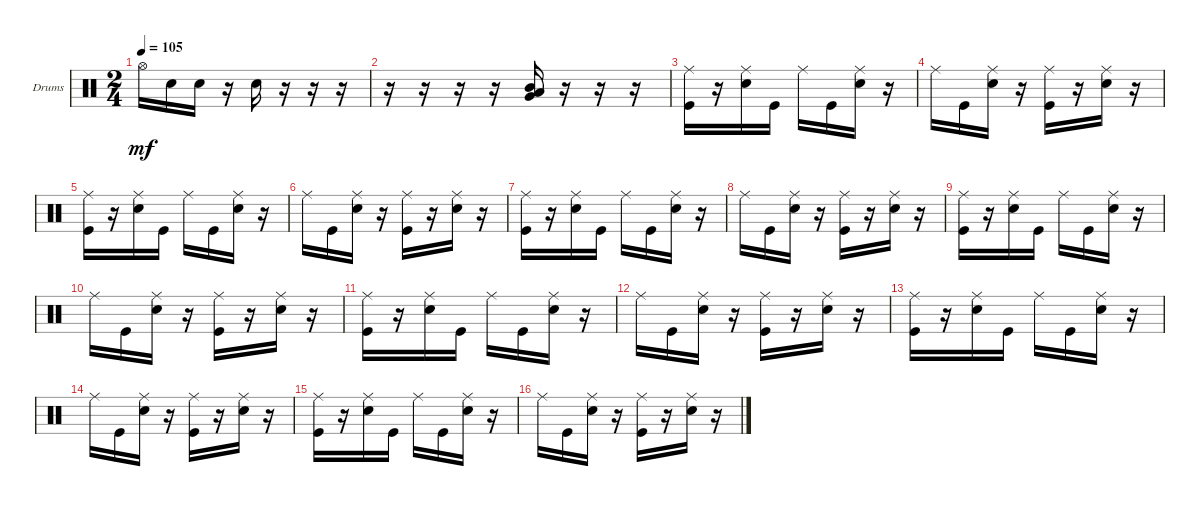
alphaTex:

\defaultSystemsLayout 4
\bracketExtendMode groupsimilarinstruments
\firstSystemTrackNameOrientation horizontal
\otherSystemsTrackNameOrientation horizontal
\track ("Godd" "Drums") {instrument percussion}
\staff {score}
\articulation defaults
\ts (2 4)
\tempo 105
\clef neutral
\ks c "Hi-Hat (open)"{t}.16{dy mf} "Snare (hit) 2".16 "Snare (hit) 2".16
r.16 "Snare (hit) 2".16 r.16 r.16 r.16 |
r.16 r.16 r.16 r.16 ("Very Low Tom (hit)" "Low Tom (hit)" "Mid Tom (hit)").16 r.16 r.16 r.16 |
("Kick (hit)" "Ride (middle)").16 r.16 ("Snare (hit) 2" "Ride (middle)").16 "Kick (hit)".16 "Ride (middle)".16 "Kick (hit)".16 ("Snare (hit) 2" "Ride (middle)").16 r.16 |
"Ride (middle)".16 "Kick (hit)".16 ("Snare (hit) 2" "Ride (middle)").16 r.16 ("Kick (hit)" "Ride (middle)").16 r.16 ("Snare (hit) 2" "Ride (middle)").16 r.16 |
("Kick (hit)" "Ride (middle)").16 r.16 ("Snare (hit) 2" "Ride (middle)").16 "Kick (hit)".16 "Ride (middle)".16 "Kick (hit)".16 ("Snare (hit) 2" "Ride (middle)").16 r.16 |
"Ride (middle)".16 "Kick (hit)".16 ("Snare (hit) 2" "Ride (middle)").16 r.16 ("Kick (hit)" "Ride (middle)").16 r.16 ("Snare (hit) 2" "Ride (middle)").16 r.16 |
("Kick (hit)" "Ride (middle)").16 r.16 ("Snare (hit) 2" "Ride (middle)").16 "Kick (hit)".16 "Ride (middle)".16 "Kick (hit)".16 ("Snare (hit) 2" "Ride (middle)").16 r.16 |
"Ride (middle)".16 "Kick (hit)".16 ("Snare (hit) 2" "Ride (middle)").16 r.16 ("Kick (hit)" "Ride (middle)").16 r.16 ("Snare (hit) 2" "Ride (middle)").16 r.16 |
("Kick (hit)" "Ride (middle)").16 r.16 ("Snare (hit) 2" "Ride (middle)").16 "Kick (hit)".16 "Ride (middle)".16 "Kick (hit)".16 ("Snare (hit) 2" "Ride (middle)").16 r.16 |
"Ride (middle)".16 "Kick (hit)".16 ("Snare (hit) 2" "Ride (middle)").16 r.16 ("Kick (hit)" "Ride (middle)").16 r.16 ("Snare (hit) 2" "Ride (middle)").16 r.16 |
("Kick (hit)" "Ride (middle)").16 r.16 ("Snare (hit) 2" "Ride (middle)").16 "Kick (hit)".16 "Ride (middle)".16 "Kick (hit)".16 ("Snare (hit) 2" "Ride (middle)").16 r.16 |
"Ride (middle)".16 "Kick (hit)".16 ("Snare (hit) 2" "Ride (middle)").16 r.16 ("Kick (hit)" "Ride (middle)").16 r.16 ("Snare (hit) 2" "Ride (middle)").16 r.16 |
("Kick (hit)" "Ride (middle)").16 r.16 ("Snare (hit) 2" "Ride (middle)").16 "Kick (hit)".16 "Ride (middle)".16 "Kick (hit)".16 ("Snare (hit) 2" "Ride (middle)").16 r.16 |
"Ride (middle)".16 "Kick (hit)".16 ("Snare (hit) 2" "Ride (middle)").16 r.16 ("Kick (hit)" "Ride (middle)").16 r.16 ("Snare (hit) 2" "Ride (middle)").16 r.16 |
("Kick (hit)" "Ride (middle)").16 r.16 ("Snare (hit) 2" "Ride (middle)").16 "Kick (hit)".16 "Ride (middle)".16 "Kick (hit)".16 ("Snare (hit) 2" "Ride (middle)").16 r.16 |
"Ride (middle)".16 "Kick (hit)".16 ("Snare (hit) 2" "Ride (middle)").16 r.16 ("Kick (hit)" "Ride (middle)").16 r.16 ("Snare (hit) 2" "Ride (middle)").16 r.16
